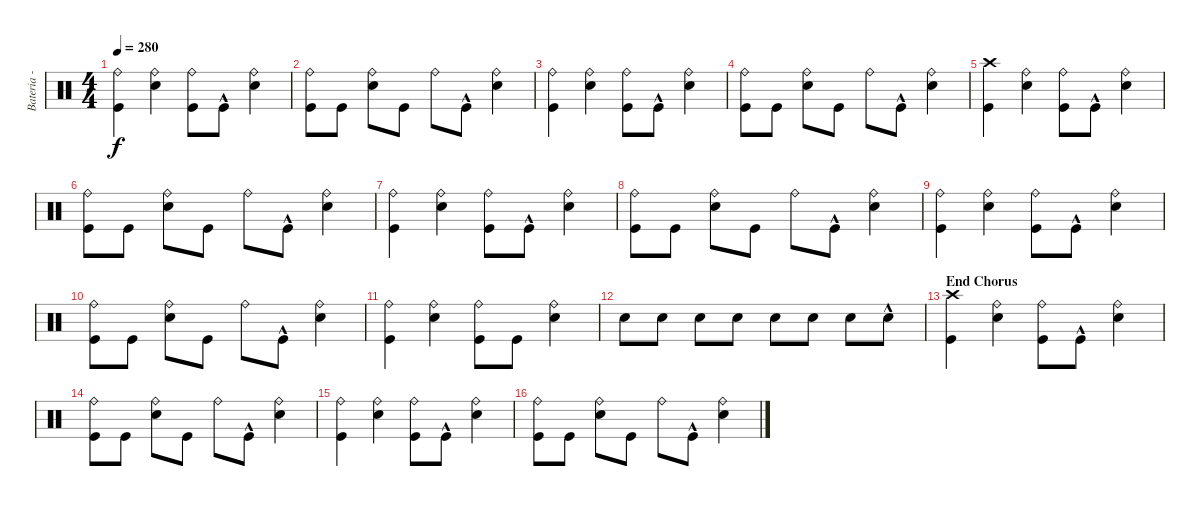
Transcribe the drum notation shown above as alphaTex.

\track ("Bateria - Larzon" "Bateria - ") {instrument percussion}
\staff {score}
\articulation defaults
\ts (4 4)
\tempo 280
\clef neutral
\ks c
("Kick (hit)" "Ride (bell)").4{dy f} ("Snare (hit) 2" "Ride (bell)").4 ("Kick (hit)" "Ride (bell)").8 "Kick (hit)"{hac}.8 ("Snare (hit) 2" "Ride (bell)").4 |
("Kick (hit)" "Ride (bell)").8 "Kick (hit)".8 ("Snare (hit) 2" "Ride (bell)").8 "Kick (hit)".8 "Ride (bell)".8 "Kick (hit)"{hac}.8 ("Snare (hit) 2" "Ride (bell)").4 |
("Kick (hit)" "Ride (bell)").4 ("Snare (hit) 2" "Ride (bell)").4 ("Kick (hit)" "Ride (bell)").8 "Kick (hit)"{hac}.8 ("Snare (hit) 2" "Ride (bell)").4 |
("Kick (hit)" "Ride (bell)").8 "Kick (hit)".8 ("Snare (hit) 2" "Ride (bell)").8 "Kick (hit)".8 "Ride (bell)".8 "Kick (hit)"{hac}.8 ("Snare (hit) 2" "Ride (bell)").4 |
("Kick (hit)" "Crash high (hit)").4 ("Snare (hit) 2" "Ride (bell)").4 ("Kick (hit)" "Ride (bell)").8 "Kick (hit)"{hac}.8 ("Snare (hit) 2" "Ride (bell)").4 |
("Kick (hit)" "Ride (bell)").8 "Kick (hit)".8 ("Snare (hit) 2" "Ride (bell)").8 "Kick (hit)".8 "Ride (bell)".8 "Kick (hit)"{hac}.8 ("Snare (hit) 2" "Ride (bell)").4 |
("Kick (hit)" "Ride (bell)").4 ("Snare (hit) 2" "Ride (bell)").4 ("Kick (hit)" "Ride (bell)").8 "Kick (hit)"{hac}.8 ("Snare (hit) 2" "Ride (bell)").4 |
("Kick (hit)" "Ride (bell)").8 "Kick (hit)".8 ("Snare (hit) 2" "Ride (bell)").8 "Kick (hit)".8 "Ride (bell)".8 "Kick (hit)"{hac}.8 ("Snare (hit) 2" "Ride (bell)").4 |
("Kick (hit)" "Ride (bell)").4 ("Snare (hit) 2" "Ride (bell)").4 ("Kick (hit)" "Ride (bell)").8 "Kick (hit)"{hac}.8 ("Snare (hit) 2" "Ride (bell)").4 |
("Kick (hit)" "Ride (bell)").8 "Kick (hit)".8 ("Snare (hit) 2" "Ride (bell)").8 "Kick (hit)".8 "Ride (bell)".8 "Kick (hit)"{hac}.8 ("Snare (hit) 2" "Ride (bell)").4 |
("Kick (hit)" "Ride (bell)").4 ("Snare (hit) 2" "Ride (bell)").4 ("Kick (hit)" "Ride (bell)").8 "Kick (hit)".8 ("Snare (hit) 2" "Ride (bell)").4 |
"Snare (hit) 2".8 "Snare (hit) 2".8 "Snare (hit) 2".8 "Snare (hit) 2".8 "Snare (hit) 2".8 "Snare (hit) 2".8 "Snare (hit) 2".8 "Snare (hit) 2"{hac}.8 |
\section ("" "End Chorus")
("Kick (hit)" "Crash high (hit)").4 ("Snare (hit) 2" "Ride (bell)").4 ("Kick (hit)" "Ride (bell)").8 "Kick (hit)"{hac}.8 ("Snare (hit) 2" "Ride (bell)").4 |
("Kick (hit)" "Ride (bell)").8 "Kick (hit)".8 ("Snare (hit) 2" "Ride (bell)").8 "Kick (hit)".8 "Ride (bell)".8 "Kick (hit)"{hac}.8 ("Snare (hit) 2" "Ride (bell)").4 |
("Kick (hit)" "Ride (bell)").4 ("Snare (hit) 2" "Ride (bell)").4 ("Kick (hit)" "Ride (bell)").8 "Kick (hit)"{hac}.8 ("Snare (hit) 2" "Ride (bell)").4 |
("Kick (hit)" "Ride (bell)").8 "Kick (hit)".8 ("Snare (hit) 2" "Ride (bell)").8 "Kick (hit)".8 "Ride (bell)".8 "Kick (hit)"{hac}.8 ("Snare (hit) 2" "Ride (bell)").4
